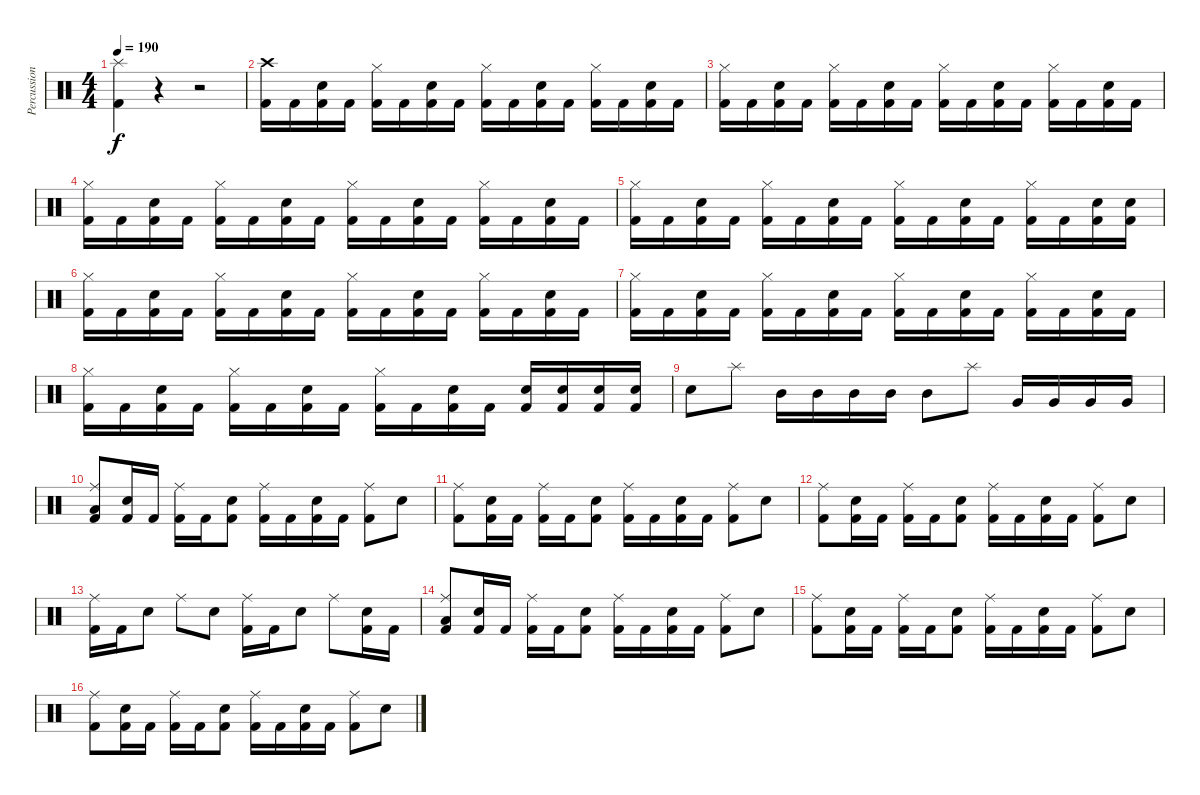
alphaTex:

\track ("Percussion" "Percussion") {instrument percussion}
\staff {score}
\articulation defaults
\ts (4 4)
\tempo 190
\clef neutral
\ks c
("Splash (hit)" "Kick (hit) 2").4{dy f} r.4 r.2 |
("Crash high (hit)" "Kick (hit) 2").16 "Kick (hit) 2".16 ("Electric Snare (hit)" "Kick (hit) 2").16 "Kick (hit) 2".16 ("Hi-Hat (closed)" "Kick (hit) 2").16 "Kick (hit) 2".16 ("Electric Snare (hit)" "Kick (hit) 2").16 "Kick (hit) 2".16 ("Hi-Hat (closed)" "Kick (hit) 2").16 "Kick (hit) 2".16 ("Electric Snare (hit)" "Kick (hit) 2").16 "Kick (hit) 2".16 ("Hi-Hat (closed)" "Kick (hit) 2").16 "Kick (hit) 2".16 ("Electric Snare (hit)" "Kick (hit) 2").16 "Kick (hit) 2".16 |
("Hi-Hat (closed)" "Kick (hit) 2").16 "Kick (hit) 2".16 ("Electric Snare (hit)" "Kick (hit) 2").16 "Kick (hit) 2".16 ("Hi-Hat (closed)" "Kick (hit) 2").16 "Kick (hit) 2".16 ("Electric Snare (hit)" "Kick (hit) 2").16 "Kick (hit) 2".16 ("Hi-Hat (closed)" "Kick (hit) 2").16 "Kick (hit) 2".16 ("Electric Snare (hit)" "Kick (hit) 2").16 "Kick (hit) 2".16 ("Hi-Hat (closed)" "Kick (hit) 2").16 "Kick (hit) 2".16 ("Electric Snare (hit)" "Kick (hit) 2").16 "Kick (hit) 2".16 |
("Hi-Hat (closed)" "Kick (hit) 2").16 "Kick (hit) 2".16 ("Electric Snare (hit)" "Kick (hit) 2").16 "Kick (hit) 2".16 ("Hi-Hat (closed)" "Kick (hit) 2").16 "Kick (hit) 2".16 ("Electric Snare (hit)" "Kick (hit) 2").16 "Kick (hit) 2".16 ("Hi-Hat (closed)" "Kick (hit) 2").16 "Kick (hit) 2".16 ("Electric Snare (hit)" "Kick (hit) 2").16 "Kick (hit) 2".16 ("Hi-Hat (closed)" "Kick (hit) 2").16 "Kick (hit) 2".16 ("Electric Snare (hit)" "Kick (hit) 2").16 "Kick (hit) 2".16 |
("Hi-Hat (closed)" "Kick (hit) 2").16 "Kick (hit) 2".16 ("Electric Snare (hit)" "Kick (hit) 2").16 "Kick (hit) 2".16 ("Hi-Hat (closed)" "Kick (hit) 2").16 "Kick (hit) 2".16 ("Electric Snare (hit)" "Kick (hit) 2").16 "Kick (hit) 2".16 ("Hi-Hat (closed)" "Kick (hit) 2").16 "Kick (hit) 2".16 ("Electric Snare (hit)" "Kick (hit) 2").16 "Kick (hit) 2".16 ("Hi-Hat (closed)" "Kick (hit) 2").16 "Kick (hit) 2".16 ("Electric Snare (hit)" "Kick (hit) 2").16 ("Electric Snare (hit)" "Kick (hit) 2").16 |
("Hi-Hat (closed)" "Kick (hit) 2").16 "Kick (hit) 2".16 ("Electric Snare (hit)" "Kick (hit) 2").16 "Kick (hit) 2".16 ("Hi-Hat (closed)" "Kick (hit) 2").16 "Kick (hit) 2".16 ("Electric Snare (hit)" "Kick (hit) 2").16 "Kick (hit) 2".16 ("Hi-Hat (closed)" "Kick (hit) 2").16 "Kick (hit) 2".16 ("Electric Snare (hit)" "Kick (hit) 2").16 "Kick (hit) 2".16 ("Hi-Hat (closed)" "Kick (hit) 2").16 "Kick (hit) 2".16 ("Electric Snare (hit)" "Kick (hit) 2").16 "Kick (hit) 2".16 |
("Hi-Hat (closed)" "Kick (hit) 2").16 "Kick (hit) 2".16 ("Electric Snare (hit)" "Kick (hit) 2").16 "Kick (hit) 2".16 ("Hi-Hat (closed)" "Kick (hit) 2").16 "Kick (hit) 2".16 ("Electric Snare (hit)" "Kick (hit) 2").16 "Kick (hit) 2".16 ("Hi-Hat (closed)" "Kick (hit) 2").16 "Kick (hit) 2".16 ("Electric Snare (hit)" "Kick (hit) 2").16 "Kick (hit) 2".16 ("Hi-Hat (closed)" "Kick (hit) 2").16 "Kick (hit) 2".16 ("Electric Snare (hit)" "Kick (hit) 2").16 "Kick (hit) 2".16 |
("Hi-Hat (closed)" "Kick (hit) 2").16 "Kick (hit) 2".16 ("Electric Snare (hit)" "Kick (hit) 2").16 "Kick (hit) 2".16 ("Hi-Hat (closed)" "Kick (hit) 2").16 "Kick (hit) 2".16 ("Electric Snare (hit)" "Kick (hit) 2").16 "Kick (hit) 2".16 ("Hi-Hat (closed)" "Kick (hit) 2").16 "Kick (hit) 2".16 ("Electric Snare (hit)" "Kick (hit) 2").16 "Kick (hit) 2".16 ("Electric Snare (hit)" "Kick (hit) 2").16 ("Electric Snare (hit)" "Kick (hit) 2").16 ("Electric Snare (hit)" "Kick (hit) 2").16 ("Electric Snare (hit)" "Kick (hit) 2").16 |
"Electric Snare (hit)".8 "Splash (hit)".8 "Mid Tom (hit)".16 "Mid Tom (hit)".16 "Mid Tom (hit)".16 "Mid Tom (hit)".16 "Mid Tom (hit)".8 "Splash (hit)".8 "Very Low Tom (hit)".16 "Very Low Tom (hit)".16 "Very Low Tom (hit)".16 "Very Low Tom (hit)".16 |
("Ride (middle)" "Low Floor Tom (hit)" "Kick (hit) 2").8 ("Electric Snare (hit)" "Kick (hit) 2").16 "Kick (hit) 2".16 ("Ride (middle)" "Kick (hit) 2").16 "Kick (hit) 2".16 ("Electric Snare (hit)" "Kick (hit) 2").8 ("Ride (middle)" "Kick (hit) 2").16 "Kick (hit) 2".16 ("Electric Snare (hit)" "Kick (hit) 2").16 "Kick (hit) 2".16 ("Ride (middle)" "Kick (hit) 2").8 "Electric Snare (hit)".8 |
("Ride (middle)" "Kick (hit) 2").8 ("Electric Snare (hit)" "Kick (hit) 2").16 "Kick (hit) 2".16 ("Ride (middle)" "Kick (hit) 2").16 "Kick (hit) 2".16 ("Electric Snare (hit)" "Kick (hit) 2").8 ("Ride (middle)" "Kick (hit) 2").16 "Kick (hit) 2".16 ("Electric Snare (hit)" "Kick (hit) 2").16 "Kick (hit) 2".16 ("Ride (middle)" "Kick (hit) 2").8 "Electric Snare (hit)".8 |
("Ride (middle)" "Kick (hit) 2").8 ("Electric Snare (hit)" "Kick (hit) 2").16 "Kick (hit) 2".16 ("Ride (middle)" "Kick (hit) 2").16 "Kick (hit) 2".16 ("Electric Snare (hit)" "Kick (hit) 2").8 ("Ride (middle)" "Kick (hit) 2").16 "Kick (hit) 2".16 ("Electric Snare (hit)" "Kick (hit) 2").16 "Kick (hit) 2".16 ("Ride (middle)" "Kick (hit) 2").8 "Electric Snare (hit)".8 |
("Ride (middle)" "Kick (hit) 2").16 "Kick (hit) 2".16 "Electric Snare (hit)".8 "Ride (middle)".8 "Electric Snare (hit)".8 ("Ride (middle)" "Kick (hit) 2").16 "Kick (hit) 2".16 "Electric Snare (hit)".8 "Ride (middle)".8 ("Electric Snare (hit)" "Kick (hit) 2").16 "Kick (hit) 2".16 |
("Ride (middle)" "Low Floor Tom (hit)" "Kick (hit) 2").8 ("Electric Snare (hit)" "Kick (hit) 2").16 "Kick (hit) 2".16 ("Ride (middle)" "Kick (hit) 2").16 "Kick (hit) 2".16 ("Electric Snare (hit)" "Kick (hit) 2").8 ("Ride (middle)" "Kick (hit) 2").16 "Kick (hit) 2".16 ("Electric Snare (hit)" "Kick (hit) 2").16 "Kick (hit) 2".16 ("Ride (middle)" "Kick (hit) 2").8 "Electric Snare (hit)".8 |
("Ride (middle)" "Kick (hit) 2").8 ("Electric Snare (hit)" "Kick (hit) 2").16 "Kick (hit) 2".16 ("Ride (middle)" "Kick (hit) 2").16 "Kick (hit) 2".16 ("Electric Snare (hit)" "Kick (hit) 2").8 ("Ride (middle)" "Kick (hit) 2").16 "Kick (hit) 2".16 ("Electric Snare (hit)" "Kick (hit) 2").16 "Kick (hit) 2".16 ("Ride (middle)" "Kick (hit) 2").8 "Electric Snare (hit)".8 |
("Ride (middle)" "Kick (hit) 2").8 ("Electric Snare (hit)" "Kick (hit) 2").16 "Kick (hit) 2".16 ("Ride (middle)" "Kick (hit) 2").16 "Kick (hit) 2".16 ("Electric Snare (hit)" "Kick (hit) 2").8 ("Ride (middle)" "Kick (hit) 2").16 "Kick (hit) 2".16 ("Electric Snare (hit)" "Kick (hit) 2").16 "Kick (hit) 2".16 ("Ride (middle)" "Kick (hit) 2").8 "Electric Snare (hit)".8
